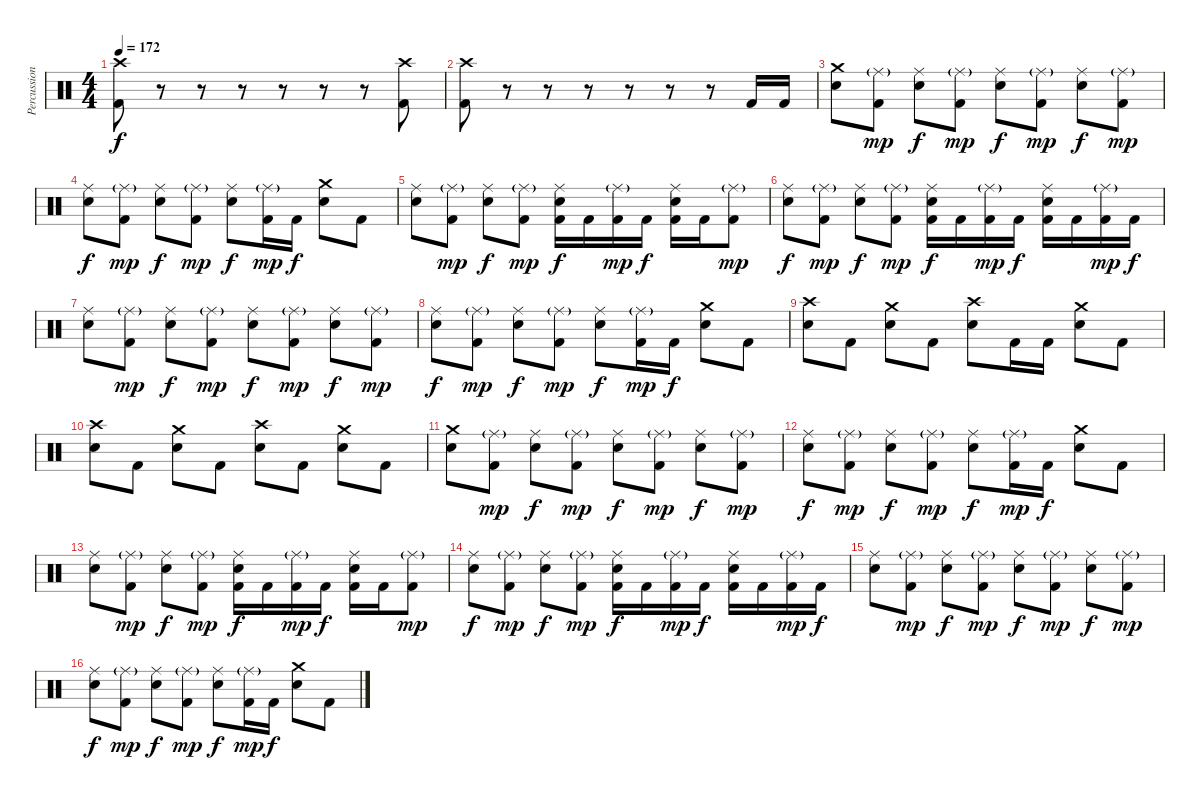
\track ("Percussion" "Percussion") {instrument percussion}
\staff {score}
\articulation defaults
\ts (4 4)
\tempo 172
\clef neutral
\ks c
("Crash high (hit)" "Kick (hit) 2").8{dy f} r.8{volume 0} r.8 r.8 r.8 r.8 r.8 ("Crash high (hit)" "Kick (hit) 2").8{volume 16} |
("Crash high (hit)" "Kick (hit) 2").8 r.8{volume 0} r.8 r.8 r.8 r.8 r.8 "Kick (hit) 2".16{volume 16} "Kick (hit) 2".16 |
("Crash medium (hit)" "Snare (hit) 2").8 ("Ride (middle)"{g} "Kick (hit) 2").8{dy mp} ("Ride (middle)" "Snare (hit) 2").8{dy f} ("Ride (middle)"{g} "Kick (hit) 2").8{dy mp} ("Ride (middle)" "Snare (hit) 2").8{dy f} ("Ride (middle)"{g} "Kick (hit) 2").8{dy mp} ("Ride (middle)" "Snare (hit) 2").8{dy f} ("Ride (middle)"{g} "Kick (hit) 2").8{dy mp} |
("Ride (middle)" "Snare (hit) 2").8{dy f} ("Ride (middle)"{g} "Kick (hit) 2").8{dy mp} ("Ride (middle)" "Snare (hit) 2").8{dy f} ("Ride (middle)"{g} "Kick (hit) 2").8{dy mp} ("Ride (middle)" "Snare (hit) 2").8{dy f} ("Ride (middle)"{g} "Kick (hit) 2").16{dy mp} "Kick (hit) 2".16{dy f} ("Crash medium (hit)" "Snare (hit) 2").8 "Kick (hit) 2".8 |
("Ride (middle)" "Snare (hit) 2").8 ("Ride (middle)"{g} "Kick (hit) 2").8{dy mp} ("Ride (middle)" "Snare (hit) 2").8{dy f} ("Ride (middle)"{g} "Kick (hit) 2").8{dy mp} ("Ride (middle)" "Snare (hit) 2" "Kick (hit) 2").16{dy f} "Kick (hit) 2".16 ("Ride (middle)"{g} "Kick (hit) 2").16{dy mp} "Kick (hit) 2".16{dy f} ("Ride (middle)" "Snare (hit) 2" "Kick (hit) 2").16 "Kick (hit) 2".16 ("Ride (middle)"{g} "Kick (hit) 2").8{dy mp} |
("Ride (middle)" "Snare (hit) 2").8{dy f} ("Ride (middle)"{g} "Kick (hit) 2").8{dy mp} ("Ride (middle)" "Snare (hit) 2").8{dy f} ("Ride (middle)"{g} "Kick (hit) 2").8{dy mp} ("Ride (middle)" "Snare (hit) 2" "Kick (hit) 2").16{dy f} "Kick (hit) 2".16 ("Ride (middle)"{g} "Kick (hit) 2").16{dy mp} "Kick (hit) 2".16{dy f} ("Ride (middle)" "Snare (hit) 2" "Kick (hit) 2").16 "Kick (hit) 2".16 ("Ride (middle)"{g} "Kick (hit) 2").16{dy mp} "Kick (hit) 2".16{dy f} |
("Ride (middle)" "Snare (hit) 2").8 ("Ride (middle)"{g} "Kick (hit) 2").8{dy mp} ("Ride (middle)" "Snare (hit) 2").8{dy f} ("Ride (middle)"{g} "Kick (hit) 2").8{dy mp} ("Ride (middle)" "Snare (hit) 2").8{dy f} ("Ride (middle)"{g} "Kick (hit) 2").8{dy mp} ("Ride (middle)" "Snare (hit) 2").8{dy f} ("Ride (middle)"{g} "Kick (hit) 2").8{dy mp} |
("Ride (middle)" "Snare (hit) 2").8{dy f} ("Ride (middle)"{g} "Kick (hit) 2").8{dy mp} ("Ride (middle)" "Snare (hit) 2").8{dy f} ("Ride (middle)"{g} "Kick (hit) 2").8{dy mp} ("Ride (middle)" "Snare (hit) 2").8{dy f} ("Ride (middle)"{g} "Kick (hit) 2").16{dy mp} "Kick (hit) 2".16{dy f} ("Crash medium (hit)" "Snare (hit) 2").8 "Kick (hit) 2".8 |
("Crash high (hit)" "Snare (hit) 2").8 "Kick (hit) 2".8 ("Crash medium (hit)" "Snare (hit) 2").8 "Kick (hit) 2".8 ("Crash high (hit)" "Snare (hit) 2").8 "Kick (hit) 2".16 "Kick (hit) 2".16 ("Crash medium (hit)" "Snare (hit) 2").8 "Kick (hit) 2".8 |
("Crash high (hit)" "Snare (hit) 2").8 "Kick (hit) 2".8 ("Crash medium (hit)" "Snare (hit) 2").8 "Kick (hit) 2".8 ("Crash high (hit)" "Snare (hit) 2").8 "Kick (hit) 2".8 ("Crash medium (hit)" "Snare (hit) 2").8 "Kick (hit) 2".8 |
("Crash medium (hit)" "Snare (hit) 2").8 ("Ride (middle)"{g} "Kick (hit) 2").8{dy mp} ("Ride (middle)" "Snare (hit) 2").8{dy f} ("Ride (middle)"{g} "Kick (hit) 2").8{dy mp} ("Ride (middle)" "Snare (hit) 2").8{dy f} ("Ride (middle)"{g} "Kick (hit) 2").8{dy mp} ("Ride (middle)" "Snare (hit) 2").8{dy f} ("Ride (middle)"{g} "Kick (hit) 2").8{dy mp} |
("Ride (middle)" "Snare (hit) 2").8{dy f} ("Ride (middle)"{g} "Kick (hit) 2").8{dy mp} ("Ride (middle)" "Snare (hit) 2").8{dy f} ("Ride (middle)"{g} "Kick (hit) 2").8{dy mp} ("Ride (middle)" "Snare (hit) 2").8{dy f} ("Ride (middle)"{g} "Kick (hit) 2").16{dy mp} "Kick (hit) 2".16{dy f} ("Crash medium (hit)" "Snare (hit) 2").8 "Kick (hit) 2".8 |
("Ride (middle)" "Snare (hit) 2").8 ("Ride (middle)"{g} "Kick (hit) 2").8{dy mp} ("Ride (middle)" "Snare (hit) 2").8{dy f} ("Ride (middle)"{g} "Kick (hit) 2").8{dy mp} ("Ride (middle)" "Snare (hit) 2" "Kick (hit) 2").16{dy f} "Kick (hit) 2".16 ("Ride (middle)"{g} "Kick (hit) 2").16{dy mp} "Kick (hit) 2".16{dy f} ("Ride (middle)" "Snare (hit) 2" "Kick (hit) 2").16 "Kick (hit) 2".16 ("Ride (middle)"{g} "Kick (hit) 2").8{dy mp} |
("Ride (middle)" "Snare (hit) 2").8{dy f} ("Ride (middle)"{g} "Kick (hit) 2").8{dy mp} ("Ride (middle)" "Snare (hit) 2").8{dy f} ("Ride (middle)"{g} "Kick (hit) 2").8{dy mp} ("Ride (middle)" "Snare (hit) 2" "Kick (hit) 2").16{dy f} "Kick (hit) 2".16 ("Ride (middle)"{g} "Kick (hit) 2").16{dy mp} "Kick (hit) 2".16{dy f} ("Ride (middle)" "Snare (hit) 2" "Kick (hit) 2").16 "Kick (hit) 2".16 ("Ride (middle)"{g} "Kick (hit) 2").16{dy mp} "Kick (hit) 2".16{dy f} |
("Ride (middle)" "Snare (hit) 2").8 ("Ride (middle)"{g} "Kick (hit) 2").8{dy mp} ("Ride (middle)" "Snare (hit) 2").8{dy f} ("Ride (middle)"{g} "Kick (hit) 2").8{dy mp} ("Ride (middle)" "Snare (hit) 2").8{dy f} ("Ride (middle)"{g} "Kick (hit) 2").8{dy mp} ("Ride (middle)" "Snare (hit) 2").8{dy f} ("Ride (middle)"{g} "Kick (hit) 2").8{dy mp} |
("Ride (middle)" "Snare (hit) 2").8{dy f} ("Ride (middle)"{g} "Kick (hit) 2").8{dy mp} ("Ride (middle)" "Snare (hit) 2").8{dy f} ("Ride (middle)"{g} "Kick (hit) 2").8{dy mp} ("Ride (middle)" "Snare (hit) 2").8{dy f} ("Ride (middle)"{g} "Kick (hit) 2").16{dy mp} "Kick (hit) 2".16{dy f} ("Crash medium (hit)" "Snare (hit) 2").8 "Kick (hit) 2".8
